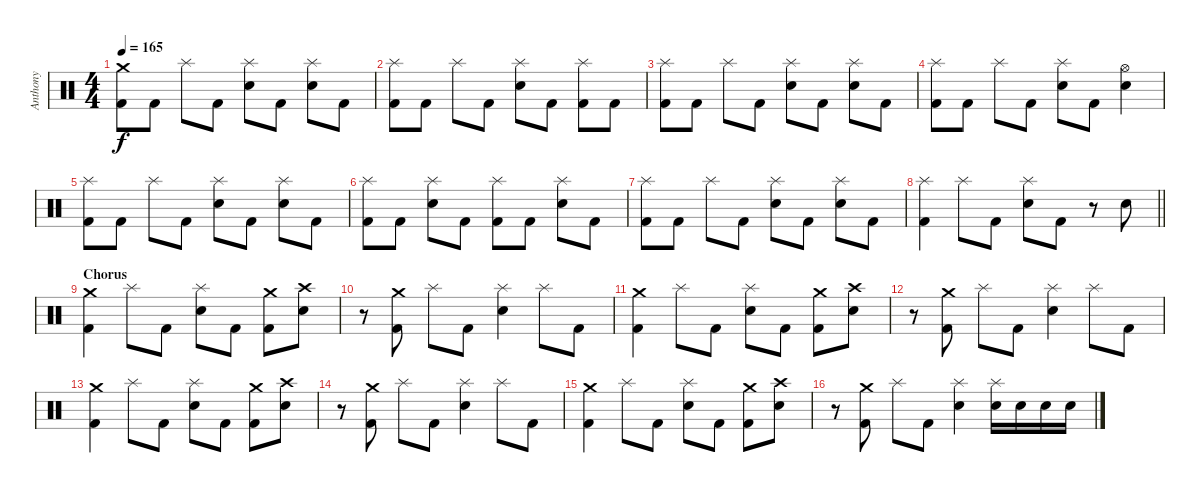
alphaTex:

\track ("Anthony" "Anthony") {instrument percussion}
\staff {score}
\articulation defaults
\ts (4 4)
\tempo 165
\clef neutral
\ks c
("Crash medium (hit)" "Kick (hit) 2").8{dy f} "Kick (hit) 2".8 "Splash (hit)".8 "Kick (hit) 2".8 ("Splash (hit)" "Electric Snare (hit)").8 "Kick (hit) 2".8 ("Splash (hit)" "Electric Snare (hit)").8 "Kick (hit) 2".8 |
("Splash (hit)" "Kick (hit) 2").8 "Kick (hit) 2".8 "Splash (hit)".8 "Kick (hit) 2".8 ("Splash (hit)" "Electric Snare (hit)").8 "Kick (hit) 2".8 ("Splash (hit)" "Kick (hit) 2").8 "Kick (hit) 2".8 |
("Splash (hit)" "Kick (hit) 2").8 "Kick (hit) 2".8 "Splash (hit)".8 "Kick (hit) 2".8 ("Splash (hit)" "Electric Snare (hit)").8 "Kick (hit) 2".8 ("Splash (hit)" "Electric Snare (hit)").8 "Kick (hit) 2".8 |
("Splash (hit)" "Kick (hit) 2").8 "Kick (hit) 2".8 "Splash (hit)".8 "Kick (hit) 2".8 ("Splash (hit)" "Electric Snare (hit)").8 "Kick (hit) 2".8 ("Hi-Hat (open)" "Electric Snare (hit)").4 |
("Splash (hit)" "Kick (hit) 2").8 "Kick (hit) 2".8 "Splash (hit)".8 "Kick (hit) 2".8 ("Splash (hit)" "Electric Snare (hit)").8 "Kick (hit) 2".8 ("Splash (hit)" "Electric Snare (hit)").8 "Kick (hit) 2".8 |
("Splash (hit)" "Kick (hit) 2").8 "Kick (hit) 2".8 ("Splash (hit)" "Electric Snare (hit)").8 "Kick (hit) 2".8 ("Splash (hit)" "Kick (hit) 2").8 "Kick (hit) 2".8 ("Splash (hit)" "Electric Snare (hit)").8 "Kick (hit) 2".8 |
("Splash (hit)" "Kick (hit) 2").8 "Kick (hit) 2".8 "Splash (hit)".8 "Kick (hit) 2".8 ("Splash (hit)" "Electric Snare (hit)").8 "Kick (hit) 2".8 ("Splash (hit)" "Electric Snare (hit)").8 "Kick (hit) 2".8 |
\barLineRight lightlight
("Splash (hit)" "Kick (hit) 2").4 "Splash (hit)".8 "Kick (hit) 2".8 ("Splash (hit)" "Electric Snare (hit)").8 "Kick (hit) 2".8 r.8 "Electric Snare (hit)".8 |
\section ("" "Chorus")
("Crash medium (hit)" "Kick (hit) 2").4 "Splash (hit)".8 "Kick (hit) 2".8 ("Splash (hit)" "Electric Snare (hit)").8 "Kick (hit) 2".8 ("Crash medium (hit)" "Kick (hit) 2").8 ("Crash high (hit)" "Electric Snare (hit)").8 |
r.8 ("Crash medium (hit)" "Kick (hit) 2").8 "Splash (hit)".8 "Kick (hit) 2".8 ("Splash (hit)" "Electric Snare (hit)").4 "Splash (hit)".8 "Kick (hit) 2".8 |
("Crash medium (hit)" "Kick (hit) 2").4 "Splash (hit)".8 "Kick (hit) 2".8 ("Splash (hit)" "Electric Snare (hit)").8 "Kick (hit) 2".8 ("Crash medium (hit)" "Kick (hit) 2").8 ("Crash high (hit)" "Electric Snare (hit)").8 |
r.8 ("Crash medium (hit)" "Kick (hit) 2").8 "Splash (hit)".8 "Kick (hit) 2".8 ("Splash (hit)" "Electric Snare (hit)").4 "Splash (hit)".8 "Kick (hit) 2".8 |
("Crash medium (hit)" "Kick (hit) 2").4 "Splash (hit)".8 "Kick (hit) 2".8 ("Splash (hit)" "Electric Snare (hit)").8 "Kick (hit) 2".8 ("Crash medium (hit)" "Kick (hit) 2").8 ("Crash high (hit)" "Electric Snare (hit)").8 |
r.8 ("Crash medium (hit)" "Kick (hit) 2").8 "Splash (hit)".8 "Kick (hit) 2".8 ("Splash (hit)" "Electric Snare (hit)").4 "Splash (hit)".8 "Kick (hit) 2".8 |
("Crash medium (hit)" "Kick (hit) 2").4 "Splash (hit)".8 "Kick (hit) 2".8 ("Splash (hit)" "Electric Snare (hit)").8 "Kick (hit) 2".8 ("Crash medium (hit)" "Kick (hit) 2").8 ("Crash high (hit)" "Electric Snare (hit)").8 |
r.8 ("Crash medium (hit)" "Kick (hit) 2").8 "Splash (hit)".8 "Kick (hit) 2".8 ("Splash (hit)" "Electric Snare (hit)").4 ("Splash (hit)" "Electric Snare (hit)").16 "Electric Snare (hit)".16 "Electric Snare (hit)".16 "Electric Snare (hit)".16
